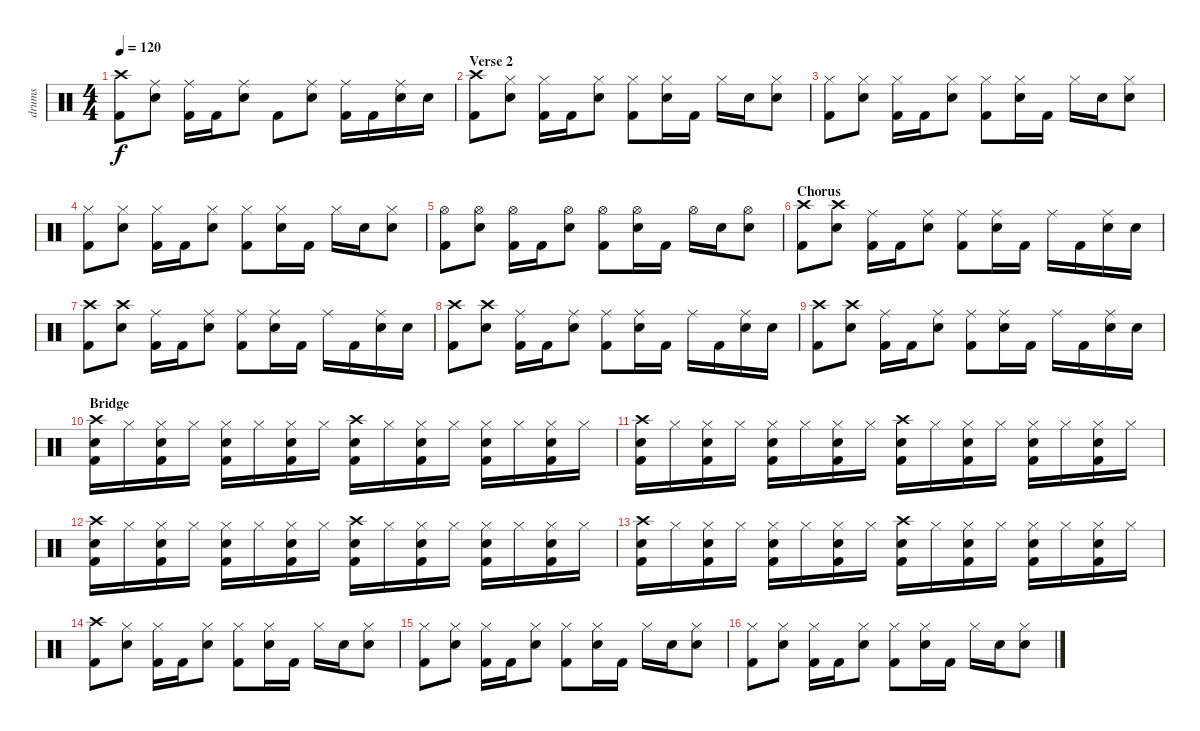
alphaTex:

\track ("drums" "drums") {instrument percussion}
\staff {score}
\articulation defaults
\ts (4 4)
\tempo 120
\clef neutral
\ks c
("Crash high (hit)" "Kick (hit) 2").8{dy f} ("Ride (middle)" "Snare (hit) 2").8 ("Ride (middle)" "Kick (hit) 2").16 "Kick (hit) 2".16 ("Ride (middle)" "Snare (hit) 2").8 "Kick (hit) 2".8 ("Ride (middle)" "Snare (hit) 2").8 ("Ride (middle)" "Kick (hit) 2").16 "Kick (hit) 2".16 ("Ride (middle)" "Snare (hit) 2").16 "Snare (hit) 2".16 |
\section ("" "Verse 2")
("Crash high (hit)" "Kick (hit) 2").8 ("Hi-Hat (closed)" "Snare (hit) 2").8 ("Hi-Hat (closed)" "Kick (hit) 2").16 "Kick (hit) 2".16 ("Hi-Hat (closed)" "Snare (hit) 2").8 ("Hi-Hat (closed)" "Kick (hit) 2").8 ("Hi-Hat (closed)" "Snare (hit) 2").16 "Kick (hit) 2".16 "Hi-Hat (closed)".16 "Snare (hit) 2".16 ("Hi-Hat (closed)" "Snare (hit) 2").8 |
("Hi-Hat (closed)" "Kick (hit) 2").8 ("Hi-Hat (closed)" "Snare (hit) 2").8 ("Hi-Hat (closed)" "Kick (hit) 2").16 "Kick (hit) 2".16 ("Hi-Hat (closed)" "Snare (hit) 2").8 ("Hi-Hat (closed)" "Kick (hit) 2").8 ("Hi-Hat (closed)" "Snare (hit) 2").16 "Kick (hit) 2".16 "Hi-Hat (closed)".16 "Snare (hit) 2".16 ("Hi-Hat (closed)" "Snare (hit) 2").8 |
("Hi-Hat (closed)" "Kick (hit) 2").8 ("Hi-Hat (closed)" "Snare (hit) 2").8 ("Hi-Hat (closed)" "Kick (hit) 2").16 "Kick (hit) 2".16 ("Hi-Hat (closed)" "Snare (hit) 2").8 ("Hi-Hat (closed)" "Kick (hit) 2").8 ("Hi-Hat (closed)" "Snare (hit) 2").16 "Kick (hit) 2".16 "Hi-Hat (closed)".16 "Snare (hit) 2".16 ("Hi-Hat (closed)" "Snare (hit) 2").8 |
("Hi-Hat (open)" "Kick (hit) 2").8 ("Hi-Hat (open)" "Snare (hit) 2").8 ("Hi-Hat (open)" "Kick (hit) 2").16 "Kick (hit) 2".16 ("Hi-Hat (open)" "Snare (hit) 2").8 ("Hi-Hat (open)" "Kick (hit) 2").8 ("Hi-Hat (open)" "Snare (hit) 2").16 "Kick (hit) 2".16 "Hi-Hat (open)".16 "Snare (hit) 2".16 ("Hi-Hat (open)" "Snare (hit) 2").8 |
\section ("" "Chorus")
("Crash high (hit)" "Kick (hit) 2").8 ("Crash high (hit)" "Snare (hit) 2").8 ("Ride (middle)" "Kick (hit) 2").16 "Kick (hit) 2".16 ("Ride (middle)" "Snare (hit) 2").8 ("Ride (middle)" "Kick (hit) 2").8 ("Ride (middle)" "Snare (hit) 2").16 "Kick (hit) 2".16 "Ride (middle)".16 "Kick (hit) 2".16 ("Ride (middle)" "Snare (hit) 2").16 "Snare (hit) 2".16 |
("Crash high (hit)" "Kick (hit) 2").8 ("Crash high (hit)" "Snare (hit) 2").8 ("Ride (middle)" "Kick (hit) 2").16 "Kick (hit) 2".16 ("Ride (middle)" "Snare (hit) 2").8 ("Ride (middle)" "Kick (hit) 2").8 ("Ride (middle)" "Snare (hit) 2").16 "Kick (hit) 2".16 "Ride (middle)".16 "Kick (hit) 2".16 ("Ride (middle)" "Snare (hit) 2").16 "Snare (hit) 2".16 |
("Crash high (hit)" "Kick (hit) 2").8 ("Crash high (hit)" "Snare (hit) 2").8 ("Ride (middle)" "Kick (hit) 2").16 "Kick (hit) 2".16 ("Ride (middle)" "Snare (hit) 2").8 ("Ride (middle)" "Kick (hit) 2").8 ("Ride (middle)" "Snare (hit) 2").16 "Kick (hit) 2".16 "Ride (middle)".16 "Kick (hit) 2".16 ("Ride (middle)" "Snare (hit) 2").16 "Snare (hit) 2".16 |
("Crash high (hit)" "Kick (hit) 2").8 ("Crash high (hit)" "Snare (hit) 2").8 ("Ride (middle)" "Kick (hit) 2").16 "Kick (hit) 2".16 ("Ride (middle)" "Snare (hit) 2").8 ("Ride (middle)" "Kick (hit) 2").8 ("Ride (middle)" "Snare (hit) 2").16 "Kick (hit) 2".16 "Ride (middle)".16 "Kick (hit) 2".16 ("Ride (middle)" "Snare (hit) 2").16 "Snare (hit) 2".16 |
\section ("" "Bridge")
("Crash high (hit)" "Snare (hit) 2" "Kick (hit) 2").16 "Hi-Hat (closed)".16 ("Hi-Hat (closed)" "Snare (hit) 2" "Kick (hit) 2").16 "Hi-Hat (closed)".16 ("Hi-Hat (closed)" "Snare (hit) 2" "Kick (hit) 2").16 "Hi-Hat (closed)".16 ("Hi-Hat (closed)" "Snare (hit) 2" "Kick (hit) 2").16 "Hi-Hat (closed)".16 ("Crash high (hit)" "Snare (hit) 2" "Kick (hit) 2").16 "Hi-Hat (closed)".16 ("Hi-Hat (closed)" "Snare (hit) 2" "Kick (hit) 2").16 "Hi-Hat (closed)".16 ("Hi-Hat (closed)" "Snare (hit) 2" "Kick (hit) 2").16 "Hi-Hat (closed)".16 ("Hi-Hat (closed)" "Snare (hit) 2" "Kick (hit) 2").16 "Hi-Hat (closed)".16 |
("Crash high (hit)" "Snare (hit) 2" "Kick (hit) 2").16 "Hi-Hat (closed)".16 ("Hi-Hat (closed)" "Snare (hit) 2" "Kick (hit) 2").16 "Hi-Hat (closed)".16 ("Hi-Hat (closed)" "Snare (hit) 2" "Kick (hit) 2").16 "Hi-Hat (closed)".16 ("Hi-Hat (closed)" "Snare (hit) 2" "Kick (hit) 2").16 "Hi-Hat (closed)".16 ("Crash high (hit)" "Snare (hit) 2" "Kick (hit) 2").16 "Hi-Hat (closed)".16 ("Hi-Hat (closed)" "Snare (hit) 2" "Kick (hit) 2").16 "Hi-Hat (closed)".16 ("Hi-Hat (closed)" "Snare (hit) 2" "Kick (hit) 2").16 "Hi-Hat (closed)".16 ("Hi-Hat (closed)" "Snare (hit) 2" "Kick (hit) 2").16 "Hi-Hat (closed)".16 |
("Crash high (hit)" "Snare (hit) 2" "Kick (hit) 2").16 "Hi-Hat (closed)".16 ("Hi-Hat (closed)" "Snare (hit) 2" "Kick (hit) 2").16 "Hi-Hat (closed)".16 ("Hi-Hat (closed)" "Snare (hit) 2" "Kick (hit) 2").16 "Hi-Hat (closed)".16 ("Hi-Hat (closed)" "Snare (hit) 2" "Kick (hit) 2").16 "Hi-Hat (closed)".16 ("Crash high (hit)" "Snare (hit) 2" "Kick (hit) 2").16 "Hi-Hat (closed)".16 ("Hi-Hat (closed)" "Snare (hit) 2" "Kick (hit) 2").16 "Hi-Hat (closed)".16 ("Hi-Hat (closed)" "Snare (hit) 2" "Kick (hit) 2").16 "Hi-Hat (closed)".16 ("Hi-Hat (closed)" "Snare (hit) 2" "Kick (hit) 2").16 "Hi-Hat (closed)".16 |
("Crash high (hit)" "Snare (hit) 2" "Kick (hit) 2").16 "Hi-Hat (closed)".16 ("Hi-Hat (closed)" "Snare (hit) 2" "Kick (hit) 2").16 "Hi-Hat (closed)".16 ("Hi-Hat (closed)" "Snare (hit) 2" "Kick (hit) 2").16 "Hi-Hat (closed)".16 ("Hi-Hat (closed)" "Snare (hit) 2" "Kick (hit) 2").16 "Hi-Hat (closed)".16 ("Crash high (hit)" "Snare (hit) 2" "Kick (hit) 2").16 "Hi-Hat (closed)".16 ("Hi-Hat (closed)" "Snare (hit) 2" "Kick (hit) 2").16 "Hi-Hat (closed)".16 ("Hi-Hat (closed)" "Snare (hit) 2" "Kick (hit) 2").16 "Hi-Hat (closed)".16 ("Hi-Hat (closed)" "Snare (hit) 2" "Kick (hit) 2").16 "Hi-Hat (closed)".16 |
("Crash high (hit)" "Kick (hit) 2").8 ("Hi-Hat (closed)" "Snare (hit) 2").8 ("Hi-Hat (closed)" "Kick (hit) 2").16 "Kick (hit) 2".16 ("Hi-Hat (closed)" "Snare (hit) 2").8 ("Hi-Hat (closed)" "Kick (hit) 2").8 ("Hi-Hat (closed)" "Snare (hit) 2").16 "Kick (hit) 2".16 "Hi-Hat (closed)".16 "Snare (hit) 2".16 ("Hi-Hat (closed)" "Snare (hit) 2").8 |
("Hi-Hat (closed)" "Kick (hit) 2").8 ("Hi-Hat (closed)" "Snare (hit) 2").8 ("Hi-Hat (closed)" "Kick (hit) 2").16 "Kick (hit) 2".16 ("Hi-Hat (closed)" "Snare (hit) 2").8 ("Hi-Hat (closed)" "Kick (hit) 2").8 ("Hi-Hat (closed)" "Snare (hit) 2").16 "Kick (hit) 2".16 "Hi-Hat (closed)".16 "Snare (hit) 2".16 ("Hi-Hat (closed)" "Snare (hit) 2").8 |
("Hi-Hat (closed)" "Kick (hit) 2").8 ("Hi-Hat (closed)" "Snare (hit) 2").8 ("Hi-Hat (closed)" "Kick (hit) 2").16 "Kick (hit) 2".16 ("Hi-Hat (closed)" "Snare (hit) 2").8 ("Hi-Hat (closed)" "Kick (hit) 2").8 ("Hi-Hat (closed)" "Snare (hit) 2").16 "Kick (hit) 2".16 "Hi-Hat (closed)".16 "Snare (hit) 2".16 ("Hi-Hat (closed)" "Snare (hit) 2").8
